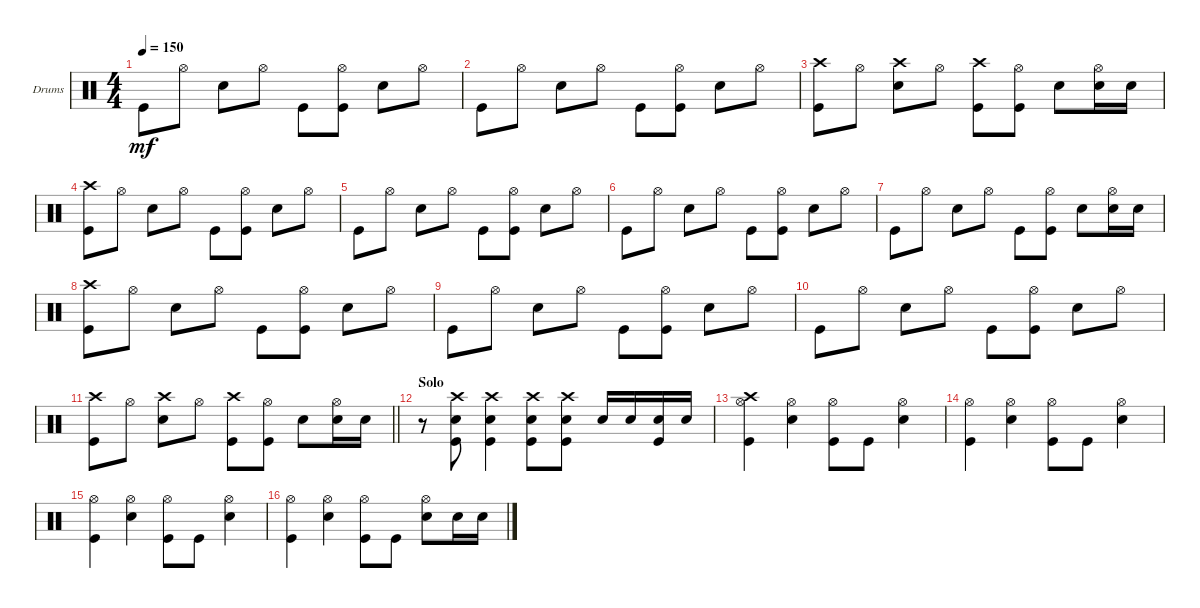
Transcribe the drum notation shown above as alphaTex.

\bracketExtendMode groupsimilarinstruments
\firstSystemTrackNameOrientation horizontal
\otherSystemsTrackNameOrientation horizontal
\track ("Percussion" "Drums") {instrument percussion}
\staff {score}
\articulation defaults
\ts (4 4)
\tempo 150
\clef neutral
\ks c "Kick (hit)".8{dy mf} "Hi-Hat (open)".8 "Snare (hit) 2".8 "Hi-Hat (open)".8 "Kick (hit)".8
("Hi-Hat (open)" "Kick (hit)").8 "Snare (hit) 2".8 "Hi-Hat (open)".8 |
\scale
0.373224 "Kick (hit)".8 "Hi-Hat (open)".8 "Snare (hit) 2".8 "Hi-Hat (open)".8 "Kick (hit)".8 ("Kick (hit)" "Hi-Hat (open)").8 "Snare (hit) 2".8 "Hi-Hat (open)".8 |
\scale
0.284334 ("Crash high (hit)" "Kick (hit)").8 "Hi-Hat (open)".8 ("Crash high (hit)" "Snare (hit) 2").8 "Hi-Hat (open)".8 ("Kick (hit)" "Crash high (hit)").8 ("Hi-Hat (open)" "Kick (hit)").8 "Snare (hit) 2".8 ("Snare (hit) 2" "Hi-Hat (open)").16 "Snare (hit) 2".16 |
\scale
0.342514 ("Crash high (hit)" "Kick (hit)").8 "Hi-Hat (open)".8 "Snare (hit) 2".8 "Hi-Hat (open)".8 "Kick (hit)".8 ("Hi-Hat (open)" "Kick (hit)").8 "Snare (hit) 2".8 "Hi-Hat (open)".8 |
"Kick (hit)".8 "Hi-Hat (open)".8 "Snare (hit) 2".8 "Hi-Hat (open)".8 "Kick (hit)".8 ("Hi-Hat (open)" "Kick (hit)").8 "Snare (hit) 2".8 "Hi-Hat (open)".8 |
"Kick (hit)".8 "Hi-Hat (open)".8 "Snare (hit) 2".8 "Hi-Hat (open)".8 "Kick (hit)".8 ("Hi-Hat (open)" "Kick (hit)").8 "Snare (hit) 2".8 "Hi-Hat (open)".8 |
"Kick (hit)".8 "Hi-Hat (open)".8 "Snare (hit) 2".8 "Hi-Hat (open)".8 "Kick (hit)".8 ("Hi-Hat (open)" "Kick (hit)").8 "Snare (hit) 2".8 ("Snare (hit) 2" "Hi-Hat (open)").16 "Snare (hit) 2".16 |
("Crash high (hit)" "Kick (hit)").8 "Hi-Hat (open)".8 "Snare (hit) 2".8 "Hi-Hat (open)".8 "Kick (hit)".8 ("Hi-Hat (open)" "Kick (hit)").8 "Snare (hit) 2".8 "Hi-Hat (open)".8 |
"Kick (hit)".8 "Hi-Hat (open)".8 "Snare (hit) 2".8 "Hi-Hat (open)".8 "Kick (hit)".8 ("Hi-Hat (open)" "Kick (hit)").8 "Snare (hit) 2".8 "Hi-Hat (open)".8 |
"Kick (hit)".8 "Hi-Hat (open)".8 "Snare (hit) 2".8 "Hi-Hat (open)".8 "Kick (hit)".8 ("Hi-Hat (open)" "Kick (hit)").8 "Snare (hit) 2".8 "Hi-Hat (open)".8 |
\barLineRight lightlight
("Crash high (hit)" "Kick (hit)").8 "Hi-Hat (open)".8 ("Snare (hit) 2" "Crash high (hit)").8 "Hi-Hat (open)".8 ("Kick (hit)" "Crash high (hit)").8 ("Hi-Hat (open)" "Kick (hit)").8 "Snare (hit) 2".8 ("Snare (hit) 2" "Hi-Hat (open)").16 "Snare (hit) 2".16 |
\section ("" "Solo")
r.8 ("Snare (hit) 2" "Crash high (hit)" "Kick (hit)").8 ("Snare (hit) 2" "Kick (hit)" "Crash high (hit)").4 ("Snare (hit) 2" "Kick (hit)" "Crash high (hit)").8 ("Snare (hit) 2" "Kick (hit)" "Crash high (hit)").8 "Snare (hit) 2".16 "Snare (hit) 2".16 ("Kick (hit)" "Snare (hit) 2").16 "Snare (hit) 2".16 |
("Kick (hit)" "Hi-Hat (open)" "Crash high (hit)").4 ("Hi-Hat (open)" "Snare (hit) 2").4 ("Hi-Hat (open)" "Kick (hit)").8 "Kick (hit)".8 ("Hi-Hat (open)" "Snare (hit) 2").4 |
("Hi-Hat (open)" "Kick (hit)").4 ("Hi-Hat (open)" "Snare (hit) 2").4 ("Kick (hit)" "Hi-Hat (open)").8 "Kick (hit)".8 ("Snare (hit) 2" "Hi-Hat (open)").4 |
("Kick (hit)" "Hi-Hat (open)").4 ("Hi-Hat (open)" "Snare (hit) 2").4 ("Hi-Hat (open)" "Kick (hit)").8 "Kick (hit)".8 ("Snare (hit) 2" "Hi-Hat (open)").4 |
("Kick (hit)" "Hi-Hat (open)").4 ("Hi-Hat (open)" "Snare (hit) 2").4 ("Kick (hit)" "Hi-Hat (open)").8 "Kick (hit)".8 ("Snare (hit) 2" "Hi-Hat (open)").8 "Snare (hit) 2".16 "Snare (hit) 2".16
